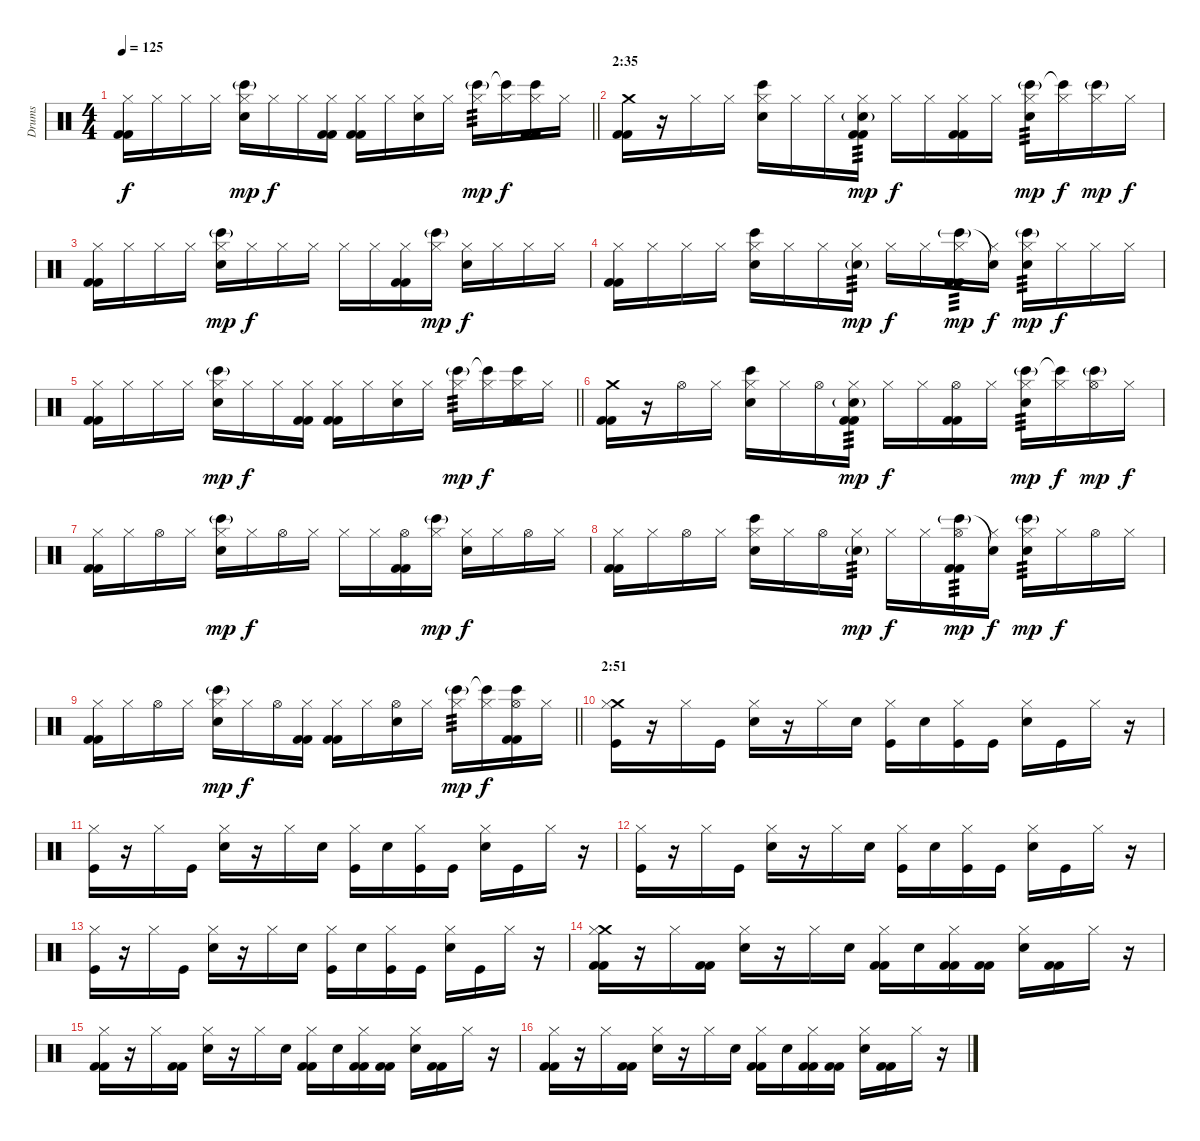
\track ("Drums" "Drums") {instrument percussion}
\staff {score}
\articulation defaults
\ts (4 4)
\tempo 125
\clef neutral
\barLineRight lightlight
\ks c
("Hi-Hat (closed)" "Kick (hit) 2" "Kick (hit) 2").16{dy f} "Hi-Hat (closed)".16 "Hi-Hat (closed)".16 "Hi-Hat (closed)".16 ("Bongo High (hit)"{g} "Hi-Hat (closed)" "Electric Snare (hit)").16{dy mp} "Hi-Hat (closed)".16{dy f} "Hi-Hat (closed)".16 ("Hi-Hat (closed)" "Kick (hit) 2" "Kick (hit) 2").16 ("Hi-Hat (closed)" "Kick (hit) 2" "Kick (hit) 2").16 "Hi-Hat (closed)".16 ("Hi-Hat (closed)" "Electric Snare (hit)").16 "Hi-Hat (closed)".16 ("Bongo High (hit)"{g} "Hi-Hat (closed)").16{tp 3 dy mp} ("Bongo High (hit)"{t} "Hi-Hat (closed)").16{dy f} ("Bongo High (hit)" "Hi-Hat (closed)" "Kick (hit) 2" "Kick (hit) 2").16 "Hi-Hat (closed)".16 |
\section ("" "2:35")
("Crash medium (hit)" "Kick (hit) 2" "Kick (hit) 2").16 r.16 "Hi-Hat (closed)".16 "Hi-Hat (closed)".16 ("Bongo High (hit)" "Hi-Hat (closed)" "Electric Snare (hit)").16 "Hi-Hat (closed)".16 "Hi-Hat (closed)".16 ("Hi-Hat (closed)" "Electric Snare (hit)"{g} "Kick (hit) 2" "Kick (hit) 2").16{tp 3 dy mp} "Hi-Hat (closed)".16{dy f} "Hi-Hat (closed)".16 ("Hi-Hat (closed)" "Kick (hit) 2" "Kick (hit) 2").16 "Hi-Hat (closed)".16 ("Bongo High (hit)"{g} "Hi-Hat (closed)" "Electric Snare (hit)").16{tp 3 dy mp} ("Bongo High (hit)"{t} "Hi-Hat (closed)").16{dy f} ("Bongo High (hit)"{g} "Hi-Hat (closed)").16{dy mp} "Hi-Hat (closed)".16{dy f} |
("Hi-Hat (closed)" "Kick (hit) 2" "Kick (hit) 2").16 "Hi-Hat (closed)".16 "Hi-Hat (closed)".16 "Hi-Hat (closed)".16 ("Bongo High (hit)"{g} "Hi-Hat (closed)" "Electric Snare (hit)").16{dy mp} "Hi-Hat (closed)".16{dy f} "Hi-Hat (closed)".16 "Hi-Hat (closed)".16 "Hi-Hat (closed)".16 "Hi-Hat (closed)".16 ("Hi-Hat (closed)" "Kick (hit) 2" "Kick (hit) 2").16 ("Bongo High (hit)"{g} "Hi-Hat (closed)").16{dy mp} ("Hi-Hat (closed)" "Electric Snare (hit)").16{dy f} "Hi-Hat (closed)".16 "Hi-Hat (closed)".16 "Hi-Hat (closed)".16 |
("Hi-Hat (closed)" "Kick (hit) 2" "Kick (hit) 2").16 "Hi-Hat (closed)".16 "Hi-Hat (closed)".16 "Hi-Hat (closed)".16 ("Bongo High (hit)" "Hi-Hat (closed)" "Electric Snare (hit)").16 "Hi-Hat (closed)".16 "Hi-Hat (closed)".16 ("Hi-Hat (closed)" "Electric Snare (hit)"{g}).16{tp 3 dy mp} "Hi-Hat (closed)".16{dy f} "Hi-Hat (closed)".16 ("Bongo High (hit)"{g} "Hi-Hat (closed)" "Kick (hit) 2" "Kick (hit) 2").16{tp 3 dy mp} ("Snare (hit)"{t} "Hi-Hat (closed)").16{dy f} ("Bongo High (hit)"{g} "Hi-Hat (closed)" "Electric Snare (hit)").16{tp 3 dy mp} "Hi-Hat (closed)".16{dy f} "Hi-Hat (closed)".16 "Hi-Hat (closed)".16 |
\barLineRight lightlight
("Hi-Hat (closed)" "Kick (hit) 2" "Kick (hit) 2").16 "Hi-Hat (closed)".16 "Hi-Hat (closed)".16 "Hi-Hat (closed)".16 ("Bongo High (hit)"{g} "Hi-Hat (closed)" "Electric Snare (hit)").16{dy mp} "Hi-Hat (closed)".16{dy f} "Hi-Hat (closed)".16 ("Hi-Hat (closed)" "Kick (hit) 2" "Kick (hit) 2").16 ("Hi-Hat (closed)" "Kick (hit) 2" "Kick (hit) 2").16 "Hi-Hat (closed)".16 ("Hi-Hat (closed)" "Electric Snare (hit)").16 "Hi-Hat (closed)".16 ("Bongo High (hit)"{g} "Hi-Hat (closed)").16{tp 3 dy mp} ("Bongo High (hit)"{t} "Hi-Hat (closed)").16{dy f} ("Bongo High (hit)" "Hi-Hat (closed)" "Kick (hit) 2" "Kick (hit) 2").16 "Hi-Hat (closed)".16 |
("Crash medium (hit)" "Kick (hit) 2" "Kick (hit) 2").16 r.16 "Hi-Hat (open)".16 "Hi-Hat (closed)".16 ("Bongo High (hit)" "Hi-Hat (closed)" "Electric Snare (hit)").16 "Hi-Hat (closed)".16 "Hi-Hat (open)".16 ("Hi-Hat (closed)" "Electric Snare (hit)"{g} "Kick (hit) 2" "Kick (hit) 2").16{tp 3 dy mp} "Hi-Hat (closed)".16{dy f} "Hi-Hat (closed)".16 ("Hi-Hat (open)" "Kick (hit) 2" "Kick (hit) 2").16 "Hi-Hat (closed)".16 ("Bongo High (hit)"{g} "Hi-Hat (closed)" "Electric Snare (hit)").16{tp 3 dy mp} ("Bongo High (hit)"{t} "Hi-Hat (closed)").16{dy f} ("Bongo High (hit)"{g} "Hi-Hat (open)").16{dy mp} "Hi-Hat (closed)".16{dy f} |
("Hi-Hat (closed)" "Kick (hit) 2" "Kick (hit) 2").16 "Hi-Hat (closed)".16 "Hi-Hat (open)".16 "Hi-Hat (closed)".16 ("Bongo High (hit)"{g} "Hi-Hat (closed)" "Electric Snare (hit)").16{dy mp} "Hi-Hat (closed)".16{dy f} "Hi-Hat (open)".16 "Hi-Hat (closed)".16 "Hi-Hat (closed)".16 "Hi-Hat (closed)".16 ("Hi-Hat (open)" "Kick (hit) 2" "Kick (hit) 2").16 ("Bongo High (hit)"{g} "Hi-Hat (closed)").16{dy mp} ("Hi-Hat (closed)" "Electric Snare (hit)").16{dy f} "Hi-Hat (closed)".16 "Hi-Hat (open)".16 "Hi-Hat (closed)".16 |
("Hi-Hat (closed)" "Kick (hit) 2" "Kick (hit) 2").16 "Hi-Hat (closed)".16 "Hi-Hat (open)".16 "Hi-Hat (closed)".16 ("Bongo High (hit)" "Hi-Hat (closed)" "Electric Snare (hit)").16 "Hi-Hat (closed)".16 "Hi-Hat (open)".16 ("Hi-Hat (closed)" "Electric Snare (hit)"{g}).16{tp 3 dy mp} "Hi-Hat (closed)".16{dy f} "Hi-Hat (closed)".16 ("Bongo High (hit)"{g} "Hi-Hat (open)" "Kick (hit) 2" "Kick (hit) 2").16{tp 3 dy mp} ("Snare (hit)"{t} "Hi-Hat (closed)").16{dy f} ("Bongo High (hit)"{g} "Hi-Hat (closed)" "Electric Snare (hit)").16{tp 3 dy mp} "Hi-Hat (closed)".16{dy f} "Hi-Hat (open)".16 "Hi-Hat (closed)".16 |
\barLineRight lightlight
("Hi-Hat (closed)" "Kick (hit) 2" "Kick (hit) 2").16 "Hi-Hat (closed)".16 "Hi-Hat (open)".16 "Hi-Hat (closed)".16 ("Bongo High (hit)"{g} "Hi-Hat (closed)" "Electric Snare (hit)").16{dy mp} "Hi-Hat (closed)".16{dy f} "Hi-Hat (open)".16 ("Hi-Hat (closed)" "Kick (hit) 2" "Kick (hit) 2").16 ("Hi-Hat (closed)" "Kick (hit) 2" "Kick (hit) 2").16 "Hi-Hat (closed)".16 ("Hi-Hat (open)" "Electric Snare (hit)").16 "Hi-Hat (closed)".16 ("Bongo High (hit)"{g} "Hi-Hat (closed)").16{tp 3 dy mp} ("Bongo High (hit)"{t} "Hi-Hat (closed)").16{dy f} ("Bongo High (hit)" "Hi-Hat (open)" "Kick (hit) 2" "Kick (hit) 2").16 "Hi-Hat (closed)".16 |
\section ("" "2:51")
("Crash medium (hit)" "Hi-Hat (closed)" "Kick (hit)").16 r.16 "Hi-Hat (closed)".16 "Kick (hit)".16 ("Hi-Hat (closed)" "Snare (hit) 2").16 r.16 "Hi-Hat (closed)".16 "Snare (hit) 2".16 ("Hi-Hat (closed)" "Kick (hit)").16 "Snare (hit) 2".16 ("Hi-Hat (closed)" "Kick (hit)").16 "Kick (hit)".16 ("Hi-Hat (closed)" "Snare (hit) 2").16 "Kick (hit)".16 "Hi-Hat (closed)".16 r.16 |
("Hi-Hat (closed)" "Kick (hit)").16 r.16 "Hi-Hat (closed)".16 "Kick (hit)".16 ("Hi-Hat (closed)" "Snare (hit) 2").16 r.16 "Hi-Hat (closed)".16 "Snare (hit) 2".16 ("Hi-Hat (closed)" "Kick (hit)").16 "Snare (hit) 2".16 ("Hi-Hat (closed)" "Kick (hit)").16 "Kick (hit)".16 ("Hi-Hat (closed)" "Snare (hit) 2").16 "Kick (hit)".16 "Hi-Hat (closed)".16 r.16 |
("Hi-Hat (closed)" "Kick (hit)").16 r.16 "Hi-Hat (closed)".16 "Kick (hit)".16 ("Hi-Hat (closed)" "Snare (hit) 2").16 r.16 "Hi-Hat (closed)".16 "Snare (hit) 2".16 ("Hi-Hat (closed)" "Kick (hit)").16 "Snare (hit) 2".16 ("Hi-Hat (closed)" "Kick (hit)").16 "Kick (hit)".16 ("Hi-Hat (closed)" "Snare (hit) 2").16 "Kick (hit)".16 "Hi-Hat (closed)".16 r.16 |
("Hi-Hat (closed)" "Kick (hit)").16 r.16 "Hi-Hat (closed)".16 "Kick (hit)".16 ("Hi-Hat (closed)" "Snare (hit) 2").16 r.16 "Hi-Hat (closed)".16 "Snare (hit) 2".16 ("Hi-Hat (closed)" "Kick (hit)").16 "Snare (hit) 2".16 ("Hi-Hat (closed)" "Kick (hit)").16 "Kick (hit)".16 ("Hi-Hat (closed)" "Snare (hit) 2").16 "Kick (hit)".16 "Hi-Hat (closed)".16 r.16 |
("Crash medium (hit)" "Hi-Hat (closed)" "Kick (hit) 2" "Kick (hit) 2").16 r.16 "Hi-Hat (closed)".16 ("Kick (hit) 2" "Kick (hit) 2").16 ("Hi-Hat (closed)" "Snare (hit) 2").16 r.16 "Hi-Hat (closed)".16 "Snare (hit) 2".16 ("Hi-Hat (closed)" "Kick (hit) 2" "Kick (hit) 2").16 "Snare (hit) 2".16 ("Hi-Hat (closed)" "Kick (hit) 2" "Kick (hit) 2").16 ("Kick (hit) 2" "Kick (hit) 2").16 ("Hi-Hat (closed)" "Snare (hit) 2").16 ("Kick (hit) 2" "Kick (hit) 2").16 "Hi-Hat (closed)".16 r.16 |
("Hi-Hat (closed)" "Kick (hit) 2" "Kick (hit) 2").16 r.16 "Hi-Hat (closed)".16 ("Kick (hit) 2" "Kick (hit) 2").16 ("Hi-Hat (closed)" "Snare (hit) 2").16 r.16 "Hi-Hat (closed)".16 "Snare (hit) 2".16 ("Hi-Hat (closed)" "Kick (hit) 2" "Kick (hit) 2").16 "Snare (hit) 2".16 ("Hi-Hat (closed)" "Kick (hit) 2" "Kick (hit) 2").16 ("Kick (hit) 2" "Kick (hit) 2").16 ("Hi-Hat (closed)" "Snare (hit) 2").16 ("Kick (hit) 2" "Kick (hit) 2").16 "Hi-Hat (closed)".16 r.16 |
("Hi-Hat (closed)" "Kick (hit) 2" "Kick (hit) 2").16 r.16 "Hi-Hat (closed)".16 ("Kick (hit) 2" "Kick (hit) 2").16 ("Hi-Hat (closed)" "Snare (hit) 2").16 r.16 "Hi-Hat (closed)".16 "Snare (hit) 2".16 ("Hi-Hat (closed)" "Kick (hit) 2" "Kick (hit) 2").16 "Snare (hit) 2".16 ("Hi-Hat (closed)" "Kick (hit) 2" "Kick (hit) 2").16 ("Kick (hit) 2" "Kick (hit) 2").16 ("Hi-Hat (closed)" "Snare (hit) 2").16 ("Kick (hit) 2" "Kick (hit) 2").16 "Hi-Hat (closed)".16 r.16
